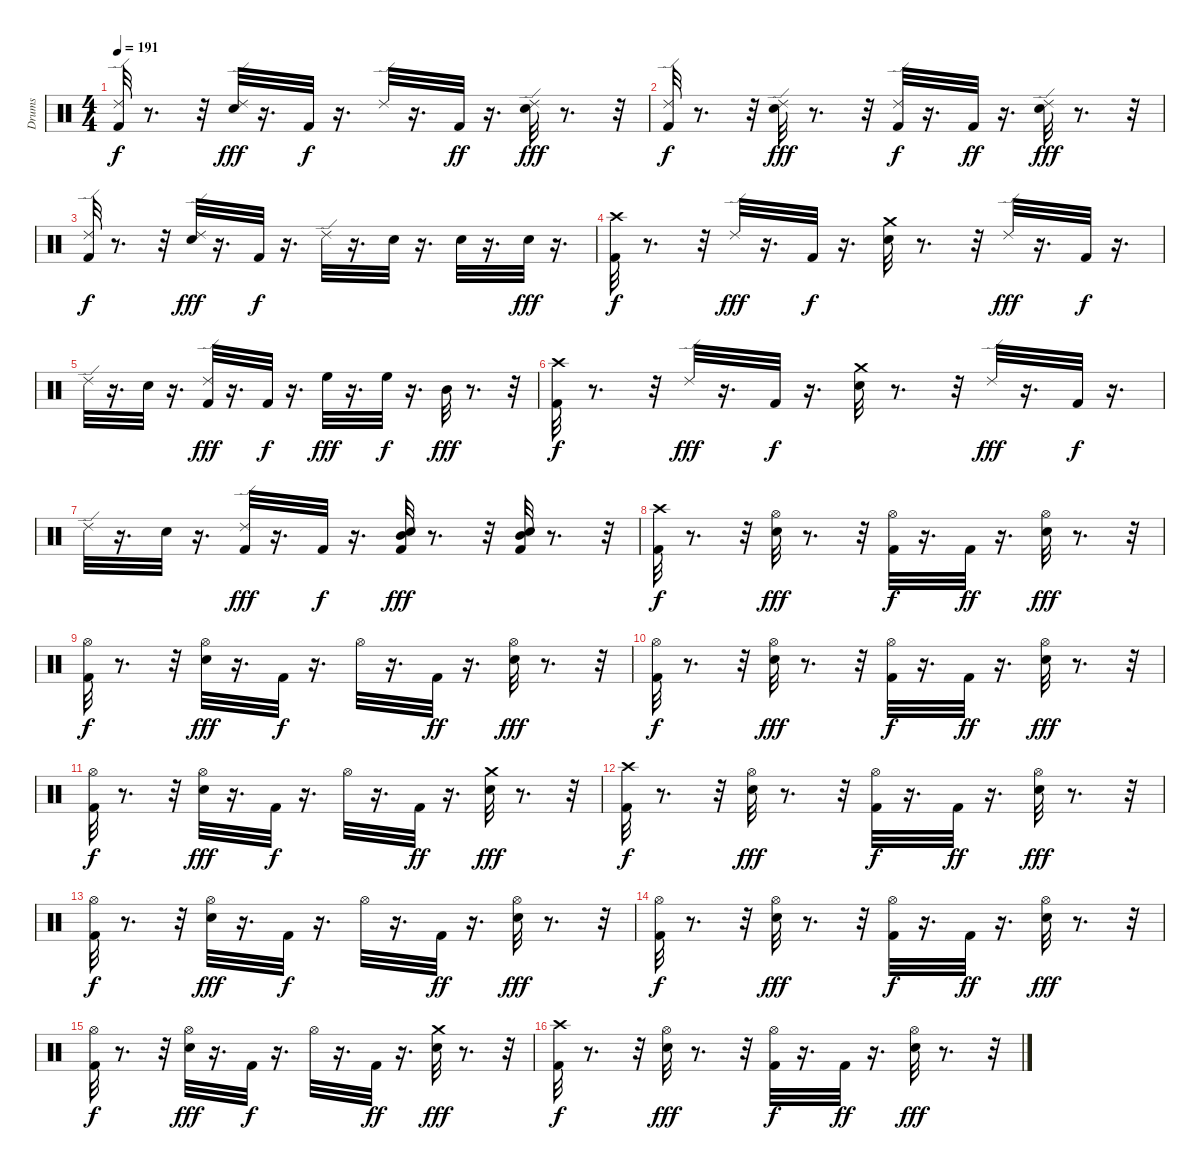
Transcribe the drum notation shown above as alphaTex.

\track ("Drums" "Drums") {instrument percussion}
\staff {score}
\articulation defaults
\ts (4 4)
\tempo 191
\clef neutral
\ks c
("Kick (hit) 2" "Ride (edge) 2").32{dy f} r.8{d} r.32 ("Snare (hit) 2" "Ride (edge) 2").32{dy fff} r.16{d} "Kick (hit) 2".32{dy f} r.16{d} "Ride (edge) 2".32 r.16{d} "Kick (hit) 2".32{dy ff} r.16{d} ("Snare (hit) 2" "Ride (edge) 2").32{dy fff} r.8{d} r.32 |
("Kick (hit) 2" "Ride (edge) 2").32{dy f} r.8{d} r.32 ("Snare (hit) 2" "Ride (edge) 2").32{dy fff} r.8{d} r.32 ("Kick (hit) 2" "Ride (edge) 2").32{dy f} r.16{d} "Kick (hit) 2".32{dy ff} r.16{d} ("Snare (hit) 2" "Ride (edge) 2").32{dy fff} r.8{d} r.32 |
("Kick (hit) 2" "Ride (edge) 2").32{dy f} r.8{d} r.32 ("Snare (hit) 2" "Ride (edge) 2").32{dy fff} r.16{d} "Kick (hit) 2".32{dy f} r.16{d} "Ride (edge) 2".32 r.16{d} "Snare (hit) 2".32 r.16{d} "Snare (hit) 2".32 r.16{d} "Snare (hit) 2".32{dy fff} r.16{d} |
("Kick (hit) 2" "Crash high (hit)").32{dy f} r.8{d} r.32 "Ride (edge) 2".32{dy fff} r.16{d} "Kick (hit) 2".32{dy f} r.16{d} ("Crash medium (hit)" "Snare (hit) 2").32 r.8{d} r.32 "Ride (edge) 2".32{dy fff} r.16{d} "Kick (hit) 2".32{dy f} r.16{d} |
"Ride (edge) 2".32 r.16{d} "Snare (hit) 2".32 r.16{d} ("Kick (hit) 2" "Ride (edge) 2").32{dy fff} r.16{d} "Kick (hit) 2".32{dy f} r.16{d} "High Floor Tom (hit)".32{dy fff} r.16{d} "High Floor Tom (hit)".32{dy f} r.16{d} "Mid Tom (hit)".32{dy fff} r.8{d} r.32 |
("Kick (hit) 2" "Crash high (hit)").32{dy f} r.8{d} r.32 "Ride (edge) 2".32{dy fff} r.16{d} "Kick (hit) 2".32{dy f} r.16{d} ("Crash medium (hit)" "Snare (hit) 2").32 r.8{d} r.32 "Ride (edge) 2".32{dy fff} r.16{d} "Kick (hit) 2".32{dy f} r.16{d} |
"Ride (edge) 2".32 r.16{d} "Snare (hit) 2".32 r.16{d} ("Kick (hit) 2" "Ride (edge) 2").32{dy fff} r.16{d} "Kick (hit) 2".32{dy f} r.16{d} ("Kick (hit) 2" "Mid Tom (hit)" "Snare (hit) 2").32{dy fff} r.8{d} r.32 ("Kick (hit) 2" "Snare (hit) 2" "Mid Tom (hit)").32 r.8{d} r.32 |
("Crash high (hit)" "Kick (hit) 2").32{dy f} r.8{d} r.32 ("Snare (hit) 2" "Hi-Hat (open)").32{dy fff} r.8{d} r.32 ("Kick (hit) 2" "Hi-Hat (open)").32{dy f} r.16{d} "Kick (hit) 2".32{dy ff} r.16{d} ("Snare (hit) 2" "Hi-Hat (open)").32{dy fff} r.8{d} r.32 |
("Kick (hit) 2" "Hi-Hat (open)").32{dy f} r.8{d} r.32 ("Snare (hit) 2" "Hi-Hat (open)").32{dy fff} r.16{d} "Kick (hit) 2".32{dy f} r.16{d} "Hi-Hat (open)".32 r.16{d} "Kick (hit) 2".32{dy ff} r.16{d} ("Snare (hit) 2" "Hi-Hat (open)").32{dy fff} r.8{d} r.32 |
("Kick (hit) 2" "Hi-Hat (open)").32{dy f} r.8{d} r.32 ("Snare (hit) 2" "Hi-Hat (open)").32{dy fff} r.8{d} r.32 ("Kick (hit) 2" "Hi-Hat (open)").32{dy f} r.16{d} "Kick (hit) 2".32{dy ff} r.16{d} ("Snare (hit) 2" "Hi-Hat (open)").32{dy fff} r.8{d} r.32 |
("Kick (hit) 2" "Hi-Hat (open)").32{dy f} r.8{d} r.32 ("Snare (hit) 2" "Hi-Hat (open)").32{dy fff} r.16{d} "Kick (hit) 2".32{dy f} r.16{d} "Hi-Hat (open)".32 r.16{d} "Kick (hit) 2".32{dy ff} r.16{d} ("Snare (hit) 2" "Crash medium (hit)").32{dy fff} r.8{d} r.32 |
("Crash high (hit)" "Kick (hit) 2").32{dy f} r.8{d} r.32 ("Snare (hit) 2" "Hi-Hat (open)").32{dy fff} r.8{d} r.32 ("Kick (hit) 2" "Hi-Hat (open)").32{dy f} r.16{d} "Kick (hit) 2".32{dy ff} r.16{d} ("Snare (hit) 2" "Hi-Hat (open)").32{dy fff} r.8{d} r.32 |
("Kick (hit) 2" "Hi-Hat (open)").32{dy f} r.8{d} r.32 ("Snare (hit) 2" "Hi-Hat (open)").32{dy fff} r.16{d} "Kick (hit) 2".32{dy f} r.16{d} "Hi-Hat (open)".32 r.16{d} "Kick (hit) 2".32{dy ff} r.16{d} ("Snare (hit) 2" "Hi-Hat (open)").32{dy fff} r.8{d} r.32 |
("Kick (hit) 2" "Hi-Hat (open)").32{dy f} r.8{d} r.32 ("Snare (hit) 2" "Hi-Hat (open)").32{dy fff} r.8{d} r.32 ("Kick (hit) 2" "Hi-Hat (open)").32{dy f} r.16{d} "Kick (hit) 2".32{dy ff} r.16{d} ("Snare (hit) 2" "Hi-Hat (open)").32{dy fff} r.8{d} r.32 |
("Kick (hit) 2" "Hi-Hat (open)").32{dy f} r.8{d} r.32 ("Snare (hit) 2" "Hi-Hat (open)").32{dy fff} r.16{d} "Kick (hit) 2".32{dy f} r.16{d} "Hi-Hat (open)".32 r.16{d} "Kick (hit) 2".32{dy ff} r.16{d} ("Snare (hit) 2" "Crash medium (hit)").32{dy fff} r.8{d} r.32 |
("Crash high (hit)" "Kick (hit) 2").32{dy f} r.8{d} r.32 ("Snare (hit) 2" "Hi-Hat (open)").32{dy fff} r.8{d} r.32 ("Kick (hit) 2" "Hi-Hat (open)").32{dy f} r.16{d} "Kick (hit) 2".32{dy ff} r.16{d} ("Snare (hit) 2" "Hi-Hat (open)").32{dy fff} r.8{d} r.32
